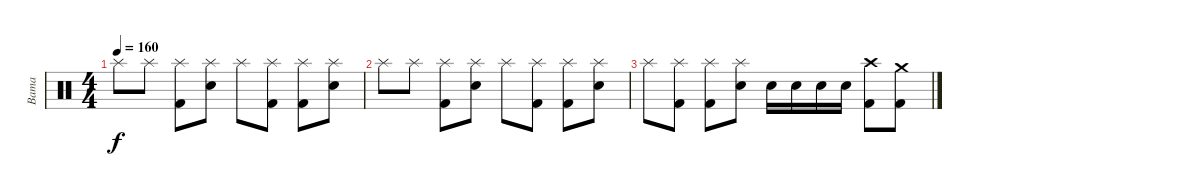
\track ("Bama" "Bama") {instrument percussion}
\staff {score}
\articulation defaults
\ts (4 4)
\tempo 160
\clef neutral
\ks c "Splash (hit)".8{dy f} "Splash (hit)".8
("Splash (hit)" "Kick (hit) 2").8 ("Splash (hit)" "Electric Snare (hit)").8 "Splash (hit)".8 ("Splash (hit)" "Kick (hit) 2").8 ("Splash (hit)" "Kick (hit) 2").8 ("Splash (hit)" "Electric Snare (hit)").8 |
"Splash (hit)".8 "Splash (hit)".8 ("Splash (hit)" "Kick (hit) 2").8 ("Splash (hit)" "Electric Snare (hit)").8 "Splash (hit)".8 ("Splash (hit)" "Kick (hit) 2").8 ("Splash (hit)" "Kick (hit) 2").8 ("Splash (hit)" "Electric Snare (hit)").8 |
"Splash (hit)".8 ("Splash (hit)" "Kick (hit) 2").8 ("Splash (hit)" "Kick (hit) 2").8 ("Splash (hit)" "Electric Snare (hit)").8 "Electric Snare (hit)".16 "Electric Snare (hit)".16 "Electric Snare (hit)".16 "Electric Snare (hit)".16 ("Crash high (hit)" "Kick (hit) 2").8 ("Crash medium (hit)" "Kick (hit) 2").8
